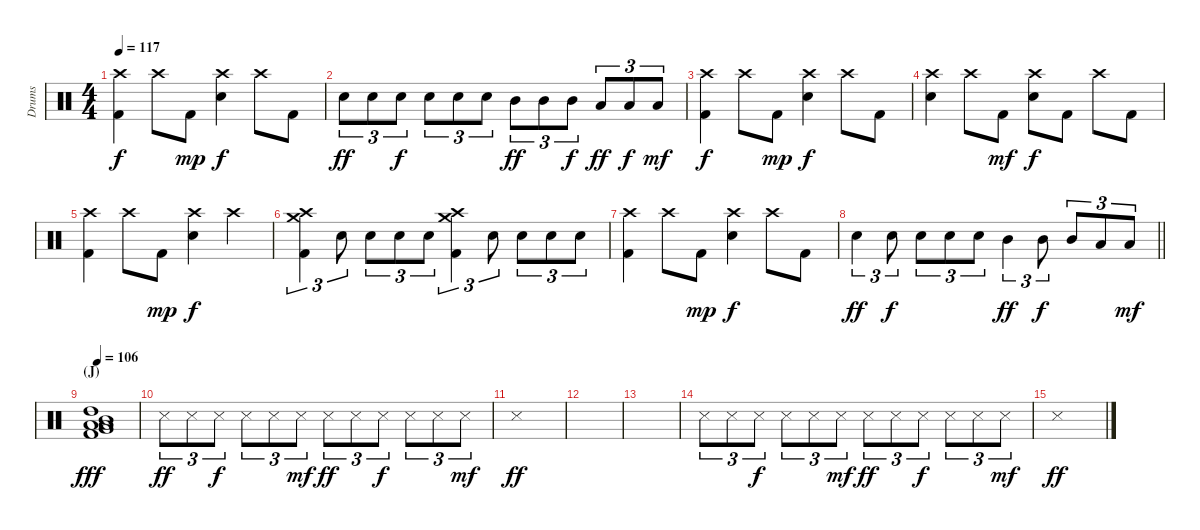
\track ("Drums" "Drums") {instrument percussion}
\staff {score}
\articulation defaults
\ts (4 4)
\tempo 117
\clef neutral
\ks c
("Crash high (hit)" "Kick (hit) 2").4{dy f} "Crash high (hit)".8 "Kick (hit) 2".8{dy mp} ("Crash high (hit)" "Snare (hit) 2").4{dy f} "Crash high (hit)".8 "Kick (hit) 2".8 |
"Snare (hit) 2".8{tu (3 2) dy ff} "Snare (hit) 2".8{tu (3 2)} "Snare (hit) 2".8{tu (3 2) dy f} "Snare (hit) 2".8{tu (3 2)} "Snare (hit) 2".8{tu (3 2)} "Snare (hit) 2".8{tu (3 2)} "Mid Tom (hit)".8{tu (3 2) dy ff} "Mid Tom (hit)".8{tu (3 2)} "Mid Tom (hit)".8{tu (3 2) dy f} "Low Tom (hit)".8{tu (3 2) dy ff} "Low Tom (hit)".8{tu (3 2) dy f} "Low Tom (hit)".8{tu (3 2) dy mf} |
("Crash high (hit)" "Kick (hit) 2").4{dy f} "Crash high (hit)".8 "Kick (hit) 2".8{dy mp} ("Crash high (hit)" "Snare (hit) 2").4{dy f} "Crash high (hit)".8 "Kick (hit) 2".8 |
("Crash high (hit)" "Snare (hit) 2").4 "Crash high (hit)".8 "Kick (hit) 2".8{dy mf} ("Crash high (hit)" "Snare (hit) 2").8{dy f} "Kick (hit) 2".8 "Crash high (hit)".8 "Kick (hit) 2".8 |
("Crash high (hit)" "Kick (hit) 2").4 "Crash high (hit)".8 "Kick (hit) 2".8{dy mp} ("Crash high (hit)" "Snare (hit) 2").4{dy f} "Crash high (hit)".4 |
("Crash high (hit)" "Crash medium (hit)" "Kick (hit) 2").4{tu (3 2)} "Snare (hit) 2".8{tu (3 2)} "Snare (hit) 2".8{tu (3 2)} "Snare (hit) 2".8{tu (3 2)} "Snare (hit) 2".8{tu (3 2)} ("Crash high (hit)" "Crash medium (hit)" "Kick (hit) 2").4{tu (3 2)} "Snare (hit) 2".8{tu (3 2)} "Snare (hit) 2".8{tu (3 2)} "Snare (hit) 2".8{tu (3 2)} "Snare (hit) 2".8{tu (3 2)} |
("Crash high (hit)" "Kick (hit) 2").4 "Crash high (hit)".8 "Kick (hit) 2".8{dy mp} ("Crash high (hit)" "Snare (hit) 2").4{dy f} "Crash high (hit)".8 "Kick (hit) 2".8 |
\barLineRight lightlight "Snare (hit) 2".4{tu (3 2) dy ff} "Snare (hit) 2".8{tu (3 2) dy f} "Snare (hit) 2".8{tu (3 2)} "Snare (hit) 2".8{tu (3 2)} "Snare (hit) 2".8{tu (3 2)} "Mid Tom (hit)".4{tu (3 2) dy ff} "Mid Tom (hit)".8{tu (3 2) dy f} "Mid Tom (hit)".8{tu (3 2)} "Low Tom (hit)".8{tu (3 2)} "Low Tom (hit)".8{tu (3 2) dy mf}
|
\section ("" "(J)")
\tempo 106
("High Tom (hit)" "Mid Tom (hit)" "Low Floor Tom (hit)" "Low Tom (hit)" "Very Low Tom (hit)" "Kick (hit) 2").1{dy fff volume 6} |
"Snare (side stick) 3".8{tu (3 2) dy ff} "Snare (side stick) 3".8{tu (3 2)} "Snare (side stick) 3".8{tu (3 2) dy f} "Snare (side stick) 3".8{tu (3 2)} "Snare (side stick) 3".8{tu (3 2)} "Snare (side stick) 3".8{tu (3 2) dy mf} "Snare (side stick) 3".8{tu (3 2) dy ff} "Snare (side stick) 3".8{tu (3 2)} "Snare (side stick) 3".8{tu (3 2) dy f} "Snare (side stick) 3".8{tu (3 2)} "Snare (side stick) 3".8{tu (3 2)} "Snare (side stick) 3".8{tu (3 2) dy mf} |
"Snare (side stick) 3".1{dy ff} |
|
|
"Snare (side stick) 3".8{tu (3 2)} "Snare (side stick) 3".8{tu (3 2)} "Snare (side stick) 3".8{tu (3 2) dy f} "Snare (side stick) 3".8{tu (3 2)} "Snare (side stick) 3".8{tu (3 2)} "Snare (side stick) 3".8{tu (3 2) dy mf} "Snare (side stick) 3".8{tu (3 2) dy ff} "Snare (side stick) 3".8{tu (3 2)} "Snare (side stick) 3".8{tu (3 2) dy f} "Snare (side stick) 3".8{tu (3 2)} "Snare (side stick) 3".8{tu (3 2)} "Snare (side stick) 3".8{tu (3 2) dy mf} |
"Snare (side stick) 3".1{dy ff}
